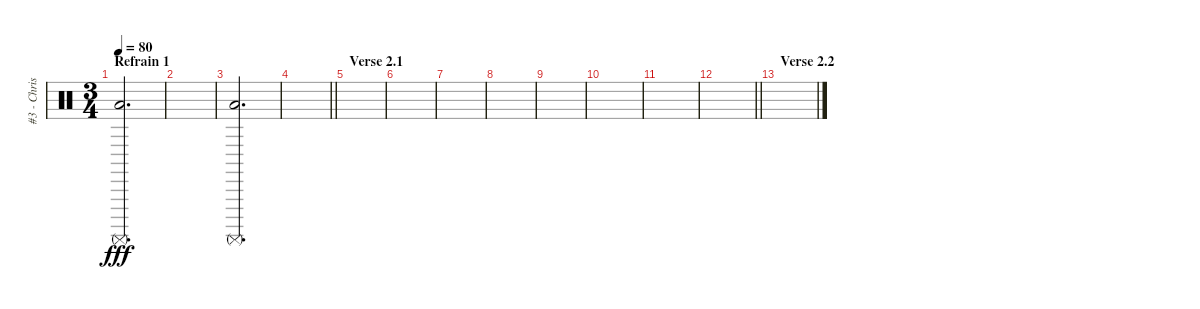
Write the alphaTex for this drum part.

\track ("#3 - Chris Fehn" "#3 - Chris") {instrument percussion}
\staff {score}
\articulation defaults
\ts (3 4)
\section ("" "Refrain 1")
\tempo 80
\clef neutral
\ks c
("Low Floor Tom (hit)" "Surdo (mute)").2{d dy fff volume 16} |
|
("Low Floor Tom (hit)" "Surdo (mute)").2{d} |
\barLineRight lightlight
|
\section ("" "Verse 2.1")
|
|
|
|
|
|
|
\barLineRight lightlight
|
\section ("" "Verse 2.2")
